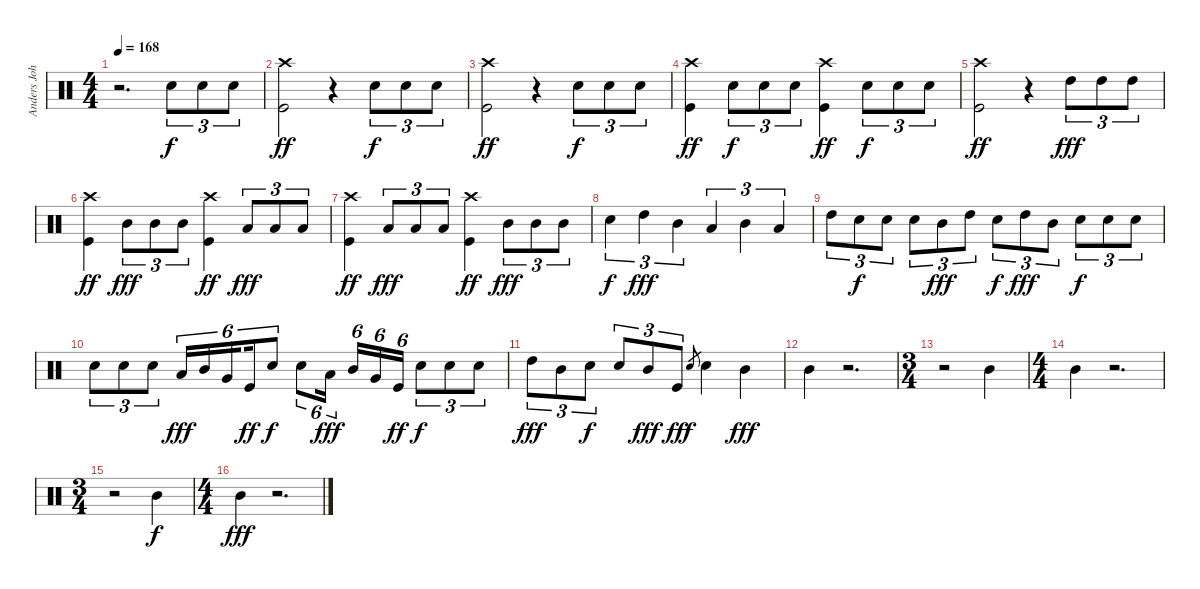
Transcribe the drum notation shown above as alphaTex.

\track ("Anders Johansson (Drums)" "Anders Joh") {instrument percussion}
\staff {score}
\articulation defaults
\ts (4 4)
\tempo 168
\clef neutral
\ks c
r.2{d dy f} "Electric Snare (hit)".8{tu (3 2)} "Electric Snare (hit)".8{tu (3 2)} "Electric Snare (hit)".8{tu (3 2)} |
("Crash high (hit)" "Kick (hit)").2{dy ff} r.4 "Electric Snare (hit)".8{tu (3 2) dy f} "Electric Snare (hit)".8{tu (3 2)} "Electric Snare (hit)".8{tu (3 2)} |
("Crash high (hit)" "Kick (hit)").2{dy ff} r.4 "Electric Snare (hit)".8{tu (3 2) dy f} "Electric Snare (hit)".8{tu (3 2)} "Electric Snare (hit)".8{tu (3 2)} |
("Crash high (hit)" "Kick (hit)").4{dy ff} "Electric Snare (hit)".8{tu (3 2) dy f} "Electric Snare (hit)".8{tu (3 2)} "Electric Snare (hit)".8{tu (3 2)} ("Crash high (hit)" "Kick (hit)").4{dy ff} "Electric Snare (hit)".8{tu (3 2) dy f} "Electric Snare (hit)".8{tu (3 2)} "Electric Snare (hit)".8{tu (3 2)} |
("Crash high (hit)" "Kick (hit)").2{dy ff} r.4 "High Tom (hit)".8{tu (3 2) dy fff} "High Tom (hit)".8{tu (3 2)} "High Tom (hit)".8{tu (3 2)} |
("Crash high (hit)" "Kick (hit)").4{dy ff} "Mid Tom (hit)".8{tu (3 2) dy fff} "Mid Tom (hit)".8{tu (3 2)} "Mid Tom (hit)".8{tu (3 2)} ("Crash high (hit)" "Kick (hit)").4{dy ff} "Low Tom (hit)".8{tu (3 2) dy fff} "Low Tom (hit)".8{tu (3 2)} "Low Tom (hit)".8{tu (3 2)} |
("Crash high (hit)" "Kick (hit)").4{dy ff} "Low Tom (hit)".8{tu (3 2) dy fff} "Low Tom (hit)".8{tu (3 2)} "Low Tom (hit)".8{tu (3 2)} ("Crash high (hit)" "Kick (hit)").4{dy ff} "Mid Tom (hit)".8{tu (3 2) dy fff} "Mid Tom (hit)".8{tu (3 2)} "Mid Tom (hit)".8{tu (3 2)} |
"Electric Snare (hit)".4{tu (3 2) dy f} "High Tom (hit)".4{tu (3 2) dy fff} "Mid Tom (hit)".4{tu (3 2)} "Low Tom (hit)".4{tu (3 2)} "Mid Tom (hit)".4{tu (3 2)} "Low Tom (hit)".4{tu (3 2)} |
"High Tom (hit)".8{tu (3 2)} "Electric Snare (hit)".8{tu (3 2) dy f} "Electric Snare (hit)".8{tu (3 2)} "Electric Snare (hit)".8{tu (3 2)} "Mid Tom (hit)".8{tu (3 2) dy fff} "High Tom (hit)".8{tu (3 2)} "Electric Snare (hit)".8{tu (3 2) dy f} "High Tom (hit)".8{tu (3 2) dy fff} "Mid Tom (hit)".8{tu (3 2)} "Electric Snare (hit)".8{tu (3 2) dy f} "Electric Snare (hit)".8{tu (3 2)} "Electric Snare (hit)".8{tu (3 2)} |
"Electric Snare (hit)".8{tu (3 2)} "Electric Snare (hit)".8{tu (3 2)} "Electric Snare (hit)".8{tu (3 2)} "Low Tom (hit)".16{tu (6 4) dy fff} "Mid Tom (hit)".16{tu (6 4)} "Very Low Tom (hit)".16{tu (6 4) beam splitsecondary} "Kick (hit)".16{tu (6 4) dy ff} "Electric Snare (hit)".8{tu (6 4) dy f} "Electric Snare (hit)".8{tu (6 4)} "Low Tom (hit)".16{tu (6 4) dy fff beam splitsecondary} "Mid Tom (hit)".16{tu (6 4)} "Very Low Tom (hit)".16{tu (6 4)} "Kick (hit)".16{tu (6 4) dy ff} "Electric Snare (hit)".8{tu (3 2) dy f} "Electric Snare (hit)".8{tu (3 2)} "Electric Snare (hit)".8{tu (3 2)} |
"High Tom (hit)".8{tu (3 2) dy fff} "Mid Tom (hit)".8{tu (3 2)} "Electric Snare (hit)".8{tu (3 2) dy f} "Electric Snare (hit)".8{tu (3 2)} "Mid Tom (hit)".8{tu (3 2) dy fff} "Kick (hit)".8{tu (3 2) dy ff} "Electric Snare (hit)".8{gr dy f} "Electric Snare (hit)".4 "Mid Tom (hit)".4{dy fff} |
"Mid Tom (hit)".4 r.2{d} |
\ts (3 4)
r.2 "Mid Tom (hit)".4 |
\ts (4 4)
"Mid Tom (hit)".4 r.2{d} |
\ts (3 4)
r.2 "Mid Tom (hit)".4{dy f} |
\ts (4 4)
"Mid Tom (hit)".4{dy fff} r.2{d}
